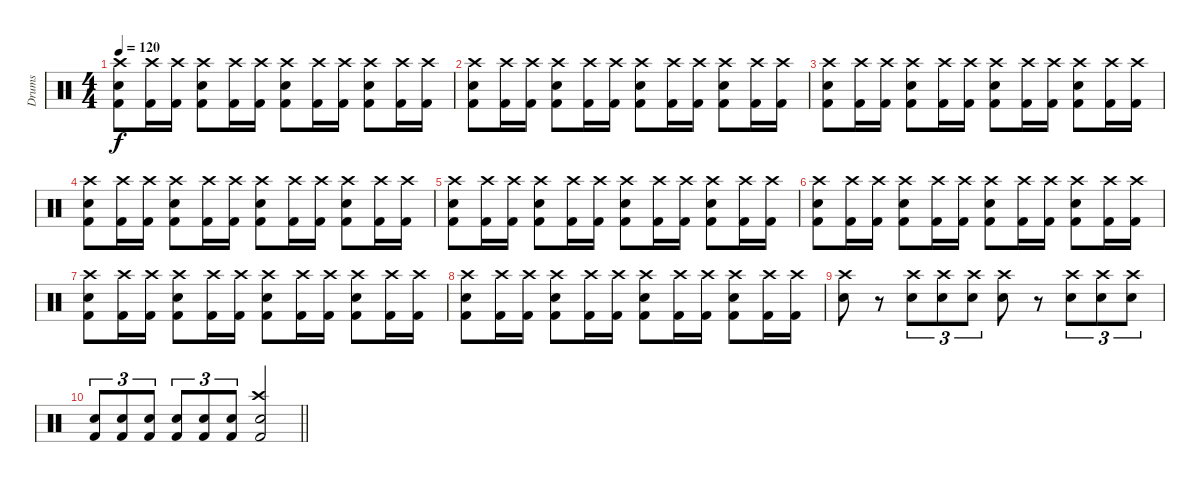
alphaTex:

\track ("Drums" "Drums") {instrument percussion}
\staff {score}
\articulation defaults
\ts (4 4)
\tempo 120
\clef neutral
\ks c
("Electric Snare (hit)" "Crash high (hit)" "Kick (hit) 2").8{dy f} ("Crash high (hit)" "Kick (hit) 2").16 ("Crash high (hit)" "Kick (hit) 2").16 ("Electric Snare (hit)" "Crash high (hit)" "Kick (hit) 2").8 ("Crash high (hit)" "Kick (hit) 2").16 ("Crash high (hit)" "Kick (hit) 2").16 ("Electric Snare (hit)" "Crash high (hit)" "Kick (hit) 2").8 ("Crash high (hit)" "Kick (hit) 2").16 ("Crash high (hit)" "Kick (hit) 2").16 ("Electric Snare (hit)" "Crash high (hit)" "Kick (hit) 2").8 ("Crash high (hit)" "Kick (hit) 2").16 ("Crash high (hit)" "Kick (hit) 2").16 |
("Electric Snare (hit)" "Crash high (hit)" "Kick (hit) 2").8 ("Crash high (hit)" "Kick (hit) 2").16 ("Crash high (hit)" "Kick (hit) 2").16 ("Electric Snare (hit)" "Crash high (hit)" "Kick (hit) 2").8 ("Crash high (hit)" "Kick (hit) 2").16 ("Crash high (hit)" "Kick (hit) 2").16 ("Electric Snare (hit)" "Crash high (hit)" "Kick (hit) 2").8 ("Crash high (hit)" "Kick (hit) 2").16 ("Crash high (hit)" "Kick (hit) 2").16 ("Electric Snare (hit)" "Crash high (hit)" "Kick (hit) 2").8 ("Crash high (hit)" "Kick (hit) 2").16 ("Crash high (hit)" "Kick (hit) 2").16 |
("Electric Snare (hit)" "Crash high (hit)" "Kick (hit) 2").8 ("Crash high (hit)" "Kick (hit) 2").16 ("Crash high (hit)" "Kick (hit) 2").16 ("Electric Snare (hit)" "Crash high (hit)" "Kick (hit) 2").8 ("Crash high (hit)" "Kick (hit) 2").16 ("Crash high (hit)" "Kick (hit) 2").16 ("Electric Snare (hit)" "Crash high (hit)" "Kick (hit) 2").8 ("Crash high (hit)" "Kick (hit) 2").16 ("Crash high (hit)" "Kick (hit) 2").16 ("Electric Snare (hit)" "Crash high (hit)" "Kick (hit) 2").8 ("Crash high (hit)" "Kick (hit) 2").16 ("Crash high (hit)" "Kick (hit) 2").16 |
("Electric Snare (hit)" "Crash high (hit)" "Kick (hit) 2").8 ("Crash high (hit)" "Kick (hit) 2").16 ("Crash high (hit)" "Kick (hit) 2").16 ("Electric Snare (hit)" "Crash high (hit)" "Kick (hit) 2").8 ("Crash high (hit)" "Kick (hit) 2").16 ("Crash high (hit)" "Kick (hit) 2").16 ("Electric Snare (hit)" "Crash high (hit)" "Kick (hit) 2").8 ("Crash high (hit)" "Kick (hit) 2").16 ("Crash high (hit)" "Kick (hit) 2").16 ("Electric Snare (hit)" "Crash high (hit)" "Kick (hit) 2").8 ("Crash high (hit)" "Kick (hit) 2").16 ("Crash high (hit)" "Kick (hit) 2").16 |
("Electric Snare (hit)" "Crash high (hit)" "Kick (hit) 2").8 ("Crash high (hit)" "Kick (hit) 2").16 ("Crash high (hit)" "Kick (hit) 2").16 ("Electric Snare (hit)" "Crash high (hit)" "Kick (hit) 2").8 ("Crash high (hit)" "Kick (hit) 2").16 ("Crash high (hit)" "Kick (hit) 2").16 ("Electric Snare (hit)" "Crash high (hit)" "Kick (hit) 2").8 ("Crash high (hit)" "Kick (hit) 2").16 ("Crash high (hit)" "Kick (hit) 2").16 ("Electric Snare (hit)" "Crash high (hit)" "Kick (hit) 2").8 ("Crash high (hit)" "Kick (hit) 2").16 ("Crash high (hit)" "Kick (hit) 2").16 |
("Electric Snare (hit)" "Crash high (hit)" "Kick (hit) 2").8 ("Crash high (hit)" "Kick (hit) 2").16 ("Crash high (hit)" "Kick (hit) 2").16 ("Electric Snare (hit)" "Crash high (hit)" "Kick (hit) 2").8 ("Crash high (hit)" "Kick (hit) 2").16 ("Crash high (hit)" "Kick (hit) 2").16 ("Electric Snare (hit)" "Crash high (hit)" "Kick (hit) 2").8 ("Crash high (hit)" "Kick (hit) 2").16 ("Crash high (hit)" "Kick (hit) 2").16 ("Electric Snare (hit)" "Crash high (hit)" "Kick (hit) 2").8 ("Crash high (hit)" "Kick (hit) 2").16 ("Crash high (hit)" "Kick (hit) 2").16 |
("Electric Snare (hit)" "Crash high (hit)" "Kick (hit) 2").8 ("Crash high (hit)" "Kick (hit) 2").16 ("Crash high (hit)" "Kick (hit) 2").16 ("Electric Snare (hit)" "Crash high (hit)" "Kick (hit) 2").8 ("Crash high (hit)" "Kick (hit) 2").16 ("Crash high (hit)" "Kick (hit) 2").16 ("Electric Snare (hit)" "Crash high (hit)" "Kick (hit) 2").8 ("Crash high (hit)" "Kick (hit) 2").16 ("Crash high (hit)" "Kick (hit) 2").16 ("Electric Snare (hit)" "Crash high (hit)" "Kick (hit) 2").8 ("Crash high (hit)" "Kick (hit) 2").16 ("Crash high (hit)" "Kick (hit) 2").16 |
("Electric Snare (hit)" "Crash high (hit)" "Kick (hit) 2").8 ("Crash high (hit)" "Kick (hit) 2").16 ("Crash high (hit)" "Kick (hit) 2").16 ("Electric Snare (hit)" "Crash high (hit)" "Kick (hit) 2").8 ("Crash high (hit)" "Kick (hit) 2").16 ("Crash high (hit)" "Kick (hit) 2").16 ("Electric Snare (hit)" "Crash high (hit)" "Kick (hit) 2").8 ("Crash high (hit)" "Kick (hit) 2").16 ("Crash high (hit)" "Kick (hit) 2").16 ("Electric Snare (hit)" "Crash high (hit)" "Kick (hit) 2").8 ("Crash high (hit)" "Kick (hit) 2").16 ("Crash high (hit)" "Kick (hit) 2").16 |
("Electric Snare (hit)" "Crash high (hit)").8 r.8 ("Electric Snare (hit)" "Crash high (hit)").8{tu (3 2)} ("Electric Snare (hit)" "Crash high (hit)").8{tu (3 2)} ("Electric Snare (hit)" "Crash high (hit)").8{tu (3 2)} ("Electric Snare (hit)" "Crash high (hit)").8 r.8 ("Electric Snare (hit)" "Crash high (hit)").8{tu (3 2)} ("Electric Snare (hit)" "Crash high (hit)").8{tu (3 2)} ("Electric Snare (hit)" "Crash high (hit)").8{tu (3 2)} |
\barLineRight lightlight
("Electric Snare (hit)" "Kick (hit) 2").8{tu (3 2)} ("Electric Snare (hit)" "Kick (hit) 2").8{tu (3 2)} ("Electric Snare (hit)" "Kick (hit) 2").8{tu (3 2)} ("Electric Snare (hit)" "Kick (hit) 2").8{tu (3 2)} ("Electric Snare (hit)" "Kick (hit) 2").8{tu (3 2)} ("Electric Snare (hit)" "Kick (hit) 2").8{tu (3 2)} ("Electric Snare (hit)" "Crash high (hit)" "Kick (hit) 2").2
